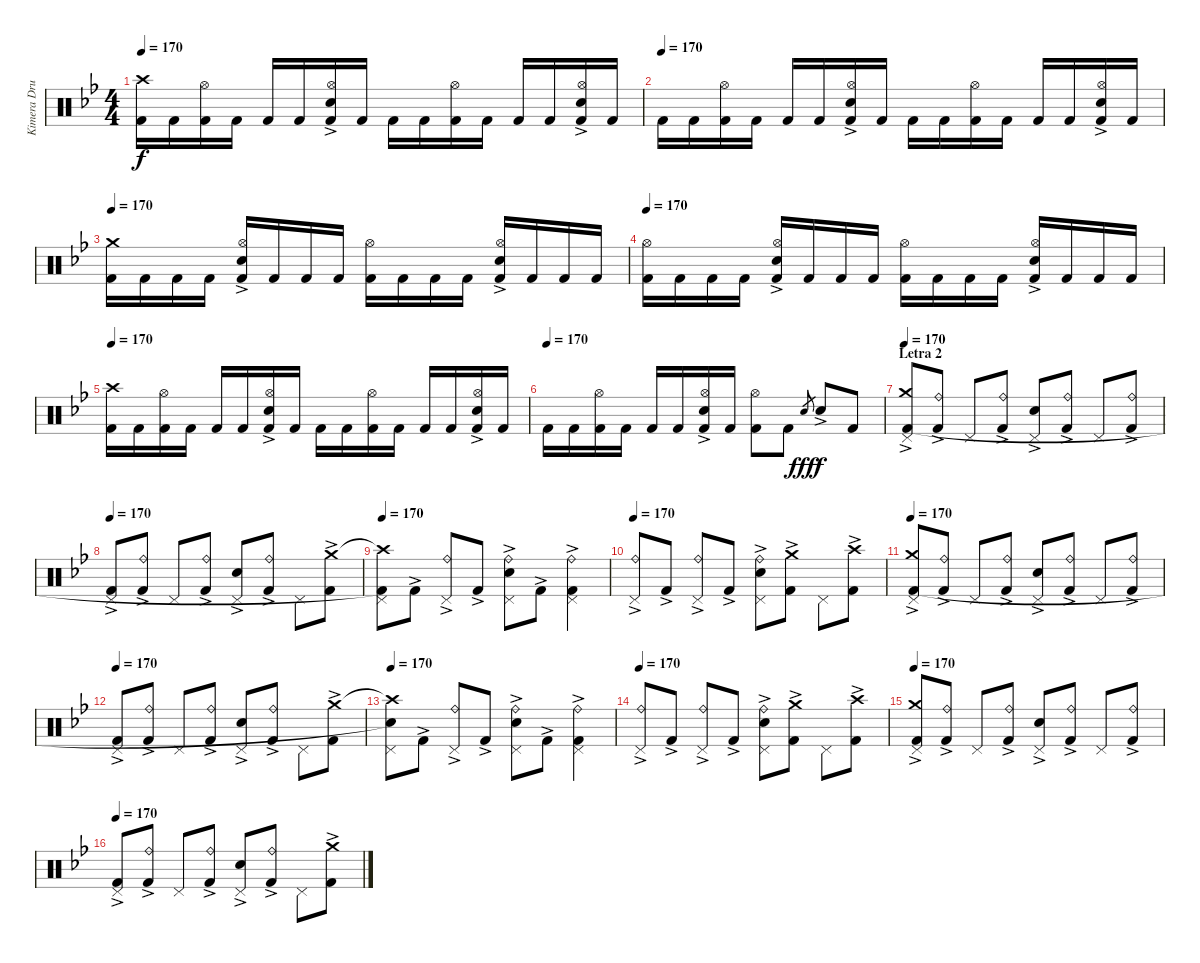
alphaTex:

\track ("Kimera Drummer" "Kimera Dru") {instrument percussion}
\staff {score}
\articulation defaults
\ts (4 4)
\tempo 170
\clef neutral
\ks gminor
("Crash high (hit)" "Kick (hit) 2").16{dy f} "Kick (hit) 2".16 ("Hi-Hat (open)" "Kick (hit) 2").16 "Kick (hit) 2".16 "Kick (hit) 2".16 "Kick (hit) 2".16 ("Hi-Hat (open)" "Electric Snare (hit)"{ac} "Kick (hit) 2").16 "Kick (hit) 2".16 "Kick (hit) 2".16 "Kick (hit) 2".16 ("Hi-Hat (open)" "Kick (hit) 2").16 "Kick (hit) 2".16 "Kick (hit) 2".16 "Kick (hit) 2".16 ("Hi-Hat (open)" "Electric Snare (hit)"{ac} "Kick (hit) 2").16 "Kick (hit) 2".16 |
\tempo (170)
"Kick (hit) 2".16 "Kick (hit) 2".16 ("Hi-Hat (open)" "Kick (hit) 2").16 "Kick (hit) 2".16 "Kick (hit) 2".16 "Kick (hit) 2".16 ("Hi-Hat (open)" "Electric Snare (hit)"{ac} "Kick (hit) 2").16 "Kick (hit) 2".16 "Kick (hit) 2".16 "Kick (hit) 2".16 ("Hi-Hat (open)" "Kick (hit) 2").16 "Kick (hit) 2".16 "Kick (hit) 2".16 "Kick (hit) 2".16 ("Hi-Hat (open)" "Electric Snare (hit)"{ac} "Kick (hit) 2").16 "Kick (hit) 2".16 |
\tempo 170
("Crash medium (hit)" "Kick (hit) 2").16 "Kick (hit) 2".16 "Kick (hit) 2".16 "Kick (hit) 2".16 ("Hi-Hat (open)" "Electric Snare (hit)"{ac} "Kick (hit) 2").16 "Kick (hit) 2".16 "Kick (hit) 2".16 "Kick (hit) 2".16 ("Hi-Hat (open)" "Kick (hit) 2").16 "Kick (hit) 2".16 "Kick (hit) 2".16 "Kick (hit) 2".16 ("Hi-Hat (open)" "Electric Snare (hit)"{ac} "Kick (hit) 2").16 "Kick (hit) 2".16 "Kick (hit) 2".16 "Kick (hit) 2".16 |
\tempo 170
("Hi-Hat (open)" "Kick (hit) 2").16 "Kick (hit) 2".16 "Kick (hit) 2".16 "Kick (hit) 2".16 ("Hi-Hat (open)" "Electric Snare (hit)"{ac} "Kick (hit) 2").16 "Kick (hit) 2".16 "Kick (hit) 2".16 "Kick (hit) 2".16 ("Hi-Hat (open)" "Kick (hit) 2").16 "Kick (hit) 2".16 "Kick (hit) 2".16 "Kick (hit) 2".16 ("Hi-Hat (open)" "Electric Snare (hit)"{ac} "Kick (hit) 2").16 "Kick (hit) 2".16 "Kick (hit) 2".16 "Kick (hit) 2".16 |
\tempo 170
("Crash high (hit)" "Kick (hit) 2").16 "Kick (hit) 2".16 ("Hi-Hat (open)" "Kick (hit) 2").16 "Kick (hit) 2".16 "Kick (hit) 2".16 "Kick (hit) 2".16 ("Hi-Hat (open)" "Electric Snare (hit)"{ac} "Kick (hit) 2").16 "Kick (hit) 2".16 "Kick (hit) 2".16 "Kick (hit) 2".16 ("Hi-Hat (open)" "Kick (hit) 2").16 "Kick (hit) 2".16 "Kick (hit) 2".16 "Kick (hit) 2".16 ("Hi-Hat (open)" "Electric Snare (hit)"{ac} "Kick (hit) 2").16 "Kick (hit) 2".16 |
\tempo (170)
"Kick (hit) 2".16 "Kick (hit) 2".16 ("Hi-Hat (open)" "Kick (hit) 2").16 "Kick (hit) 2".16 "Kick (hit) 2".16 "Kick (hit) 2".16 ("Hi-Hat (open)" "Electric Snare (hit)"{ac} "Kick (hit) 2").16 "Kick (hit) 2".16 ("Hi-Hat (open)" "Kick (hit) 2").8 "Kick (hit) 2".8 "Electric Snare (hit)".8{gr dy fff} "Electric Snare (hit)"{ac}.8{dy f} "Kick (hit) 2".8 |
\section ("" "Letra 2")
\tempo 170
("Crash medium (hit)" "Pedal Hi-Hat (hit)" "Kick (hit) 2"{ac}).8 ("Ride (bell)"{ac} "Kick (hit) 2"{ac}).8 "Pedal Hi-Hat (hit)".8 ("Ride (bell)"{ac} "Kick (hit) 2"{ac}).8 ("Electric Snare (hit)"{ac} "Pedal Hi-Hat (hit)").8 ("Ride (bell)"{ac} "Kick (hit) 2"{ac}).8 "Pedal Hi-Hat (hit)".8 ("Ride (bell)"{ac} "Kick (hit) 2"{ac}).8 |
\tempo 170
("Pedal Hi-Hat (hit)" "Kick (hit) 2"{ac}).8 ("Ride (bell)"{ac} "Kick (hit) 2"{ac}).8 "Pedal Hi-Hat (hit)".8 ("Ride (bell)"{ac} "Kick (hit) 2"{ac}).8 ("Electric Snare (hit)"{ac} "Pedal Hi-Hat (hit)").8 ("Ride (bell)"{ac} "Kick (hit) 2"{ac}).8 "Pedal Hi-Hat (hit)".8 ("Crash medium (hit)" "Kick (hit) 2"{ac}).8 |
\tempo 170
("Crash high (hit)"{t} "Pedal Hi-Hat (hit)" "Kick (hit) 2"{t}).8 "Kick (hit) 2"{ac}.8 ("Ride (bell)"{ac} "Pedal Hi-Hat (hit)").8 "Kick (hit) 2"{ac}.8 ("Ride (bell)"{ac} "Electric Snare (hit)"{ac} "Pedal Hi-Hat (hit)").8 "Kick (hit) 2"{ac}.8 ("Ride (bell)"{ac} "Pedal Hi-Hat (hit)" "Kick (hit) 2"{ac}).4 |
\tempo 170
("Ride (bell)"{ac} "Pedal Hi-Hat (hit)").8 "Kick (hit) 2"{ac}.8 ("Ride (bell)"{ac} "Pedal Hi-Hat (hit)").8 "Kick (hit) 2"{ac}.8 ("Ride (bell)"{ac} "Electric Snare (hit)"{ac} "Pedal Hi-Hat (hit)").8 ("Crash medium (hit)" "Kick (hit) 2"{ac}).8 "Pedal Hi-Hat (hit)".8 ("Crash high (hit)" "Kick (hit) 2"{ac}).8 |
\tempo 170
("Crash medium (hit)" "Pedal Hi-Hat (hit)" "Kick (hit) 2"{ac}).8 ("Ride (bell)"{ac} "Kick (hit) 2"{ac}).8 "Pedal Hi-Hat (hit)".8 ("Ride (bell)"{ac} "Kick (hit) 2"{ac}).8 ("Electric Snare (hit)"{ac} "Pedal Hi-Hat (hit)").8 ("Ride (bell)"{ac} "Kick (hit) 2"{ac}).8 "Pedal Hi-Hat (hit)".8 ("Ride (bell)"{ac} "Kick (hit) 2"{ac}).8 |
\tempo 170
("Pedal Hi-Hat (hit)" "Kick (hit) 2"{ac}).8 ("Ride (bell)"{ac} "Kick (hit) 2"{ac}).8 "Pedal Hi-Hat (hit)".8 ("Ride (bell)"{ac} "Kick (hit) 2"{ac}).8 ("Electric Snare (hit)"{ac} "Pedal Hi-Hat (hit)").8 ("Ride (bell)"{ac} "Kick (hit) 2"{ac}).8 "Pedal Hi-Hat (hit)".8 ("Crash medium (hit)" "Kick (hit) 2"{ac}).8 |
\tempo 170
("Crash high (hit)"{t} "Pedal Hi-Hat (hit)" "Snare (hit)"{t}).8 "Kick (hit) 2"{ac}.8 ("Ride (bell)"{ac} "Pedal Hi-Hat (hit)").8 "Kick (hit) 2"{ac}.8 ("Ride (bell)"{ac} "Electric Snare (hit)"{ac} "Pedal Hi-Hat (hit)").8 "Kick (hit) 2"{ac}.8 ("Ride (bell)"{ac} "Pedal Hi-Hat (hit)" "Kick (hit) 2"{ac}).4 |
\tempo 170
("Ride (bell)"{ac} "Pedal Hi-Hat (hit)").8 "Kick (hit) 2"{ac}.8 ("Ride (bell)"{ac} "Pedal Hi-Hat (hit)").8 "Kick (hit) 2"{ac}.8 ("Ride (bell)"{ac} "Electric Snare (hit)"{ac} "Pedal Hi-Hat (hit)").8 ("Crash medium (hit)" "Kick (hit) 2"{ac}).8 "Pedal Hi-Hat (hit)".8 ("Crash high (hit)" "Kick (hit) 2"{ac}).8 |
\tempo 170
("Crash medium (hit)" "Pedal Hi-Hat (hit)" "Kick (hit) 2"{ac}).8 ("Ride (bell)"{ac} "Kick (hit) 2"{ac}).8 "Pedal Hi-Hat (hit)".8 ("Ride (bell)"{ac} "Kick (hit) 2"{ac}).8 ("Electric Snare (hit)"{ac} "Pedal Hi-Hat (hit)").8 ("Ride (bell)"{ac} "Kick (hit) 2"{ac}).8 "Pedal Hi-Hat (hit)".8 ("Ride (bell)"{ac} "Kick (hit) 2"{ac}).8 |
\tempo 170
("Pedal Hi-Hat (hit)" "Kick (hit) 2"{ac}).8 ("Ride (bell)"{ac} "Kick (hit) 2"{ac}).8 "Pedal Hi-Hat (hit)".8 ("Ride (bell)"{ac} "Kick (hit) 2"{ac}).8 ("Electric Snare (hit)"{ac} "Pedal Hi-Hat (hit)").8 ("Ride (bell)"{ac} "Kick (hit) 2"{ac}).8 "Pedal Hi-Hat (hit)".8 ("Crash medium (hit)" "Kick (hit) 2"{ac}).8
